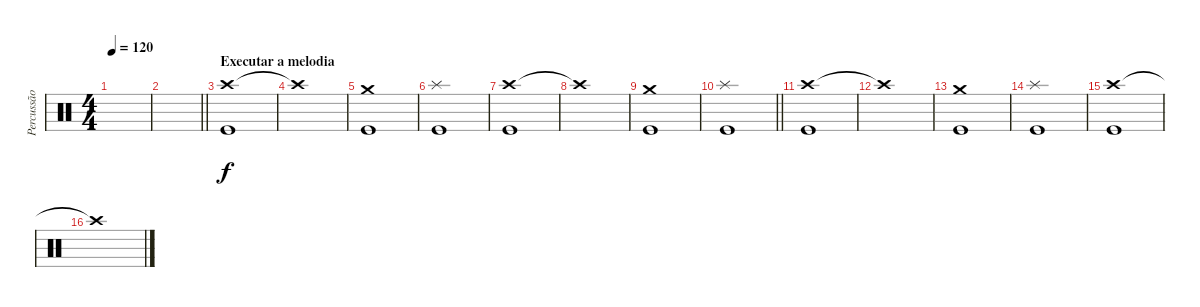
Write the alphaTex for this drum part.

\track ("Percussão" "Percussão") {instrument percussion}
\staff {score}
\articulation defaults
\ts (4 4)
\tempo 120
\clef neutral
\ks c
|
\barLineRight lightlight
|
\section ("" "Executar a melodia")
("Crash high (hit)" "Kick (hit)").1 |
"Crash high (hit)"{t}.1 |
("Crash medium (hit)" "Kick (hit)").1 |
("Splash (hit)" "Kick (hit)").1 |
("Crash high (hit)" "Kick (hit)").1 |
"Crash high (hit)"{t}.1 |
("Crash medium (hit)" "Kick (hit)").1 |
\barLineRight lightlight
("Splash (hit)" "Kick (hit)").1 |
("Crash high (hit)" "Kick (hit)").1 |
"Crash high (hit)"{t}.1 |
("Crash medium (hit)" "Kick (hit)").1 |
("Splash (hit)" "Kick (hit)").1 |
("Crash high (hit)" "Kick (hit)").1 |
"Crash high (hit)"{t}.1
